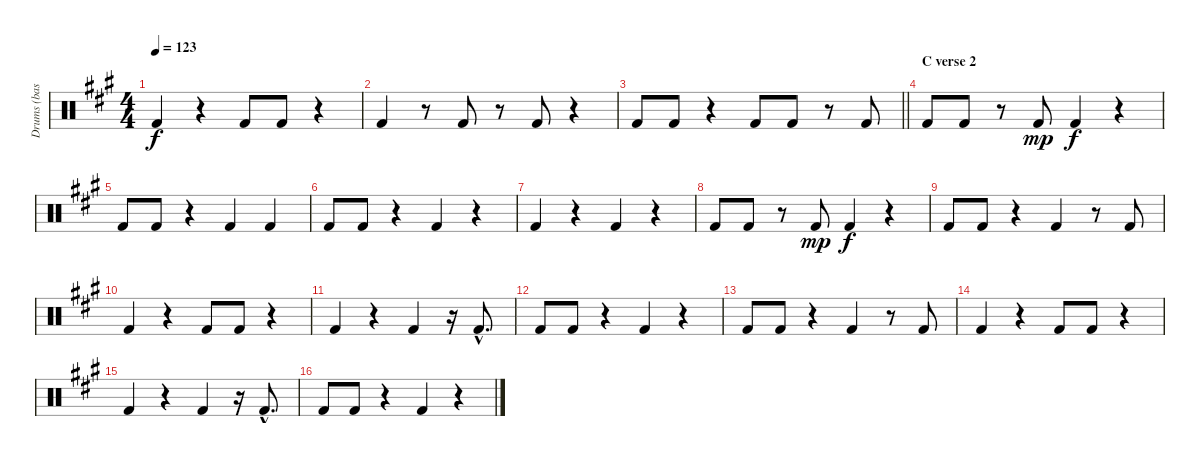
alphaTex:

\track ("Drums (bass Drums)" "Drums (bas") {instrument percussion}
\staff {score}
\articulation defaults
\ts (4 4)
\tempo 123
\clef neutral
\ks a "Kick (hit) 2".4{dy f}
r.4 "Kick (hit) 2".8 "Kick (hit) 2".8 r.4 |
"Kick (hit) 2".4 r.8 "Kick (hit) 2".8 r.8 "Kick (hit) 2".8 r.4 |
\barLineRight lightlight "Kick (hit) 2".8 "Kick (hit) 2".8
r.4 "Kick (hit) 2".8 "Kick (hit) 2".8 r.8 "Kick (hit) 2".8 |
\section ("" "C verse 2")
"Kick (hit) 2".8 "Kick (hit) 2".8 r.8 "Kick (hit) 2".8{dy mp} "Kick (hit) 2".4{dy f} r.4 |
"Kick (hit) 2".8 "Kick (hit) 2".8 r.4 "Kick (hit) 2".4 "Kick (hit) 2".4 |
"Kick (hit) 2".8 "Kick (hit) 2".8 r.4 "Kick (hit) 2".4 r.4 |
"Kick (hit) 2".4 r.4 "Kick (hit) 2".4 r.4 |
"Kick (hit) 2".8 "Kick (hit) 2".8 r.8 "Kick (hit) 2".8{dy mp} "Kick (hit) 2".4{dy f} r.4 |
"Kick (hit) 2".8 "Kick (hit) 2".8 r.4 "Kick (hit) 2".4 r.8 "Kick (hit) 2".8 |
"Kick (hit) 2".4 r.4 "Kick (hit) 2".8 "Kick (hit) 2".8 r.4 |
"Kick (hit) 2".4 r.4 "Kick (hit) 2".4 r.16 "Kick (hit) 2"{hac}.8{d} |
"Kick (hit) 2".8 "Kick (hit) 2".8 r.4 "Kick (hit) 2".4 r.4 |
"Kick (hit) 2".8 "Kick (hit) 2".8 r.4 "Kick (hit) 2".4 r.8 "Kick (hit) 2".8 |
"Kick (hit) 2".4 r.4 "Kick (hit) 2".8 "Kick (hit) 2".8 r.4 |
"Kick (hit) 2".4 r.4 "Kick (hit) 2".4 r.16 "Kick (hit) 2"{hac}.8{d} |
"Kick (hit) 2".8 "Kick (hit) 2".8 r.4 "Kick (hit) 2".4 r.4
